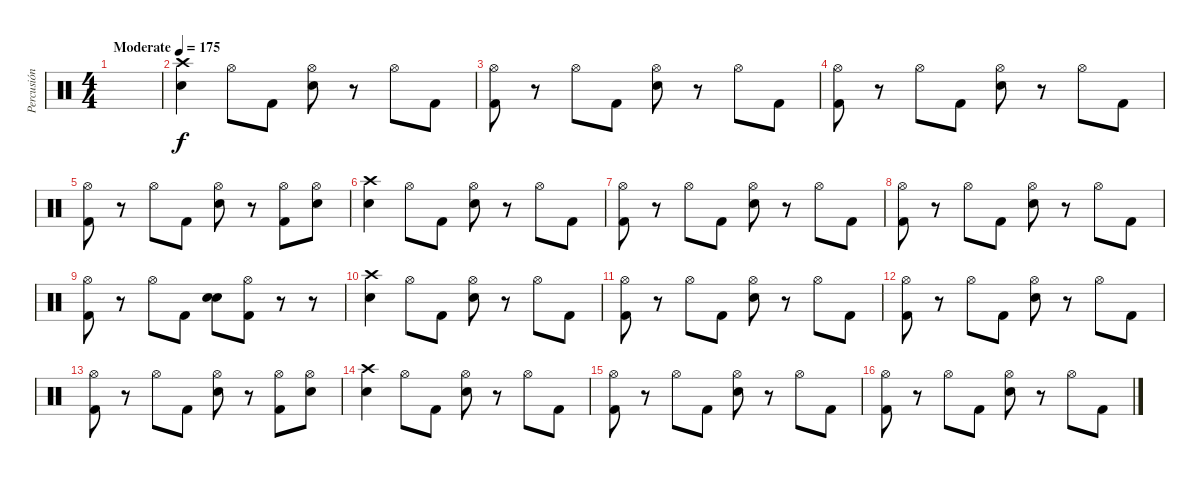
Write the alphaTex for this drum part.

\track ("Percusión" "Percusión") {instrument percussion}
\staff {score}
\articulation defaults
\ts (4 4)
\tempo (175 "Moderate")
\clef neutral
\ks c
|
("Crash high (hit)" "Electric Snare (hit)").4 "Hi-Hat (open)".8 "Kick (hit) 2".8 ("Hi-Hat (open)" "Electric Snare (hit)").8 r.8 "Hi-Hat (open)".8 "Kick (hit) 2".8 |
("Hi-Hat (open)" "Kick (hit) 2").8 r.8 "Hi-Hat (open)".8 "Kick (hit) 2".8 ("Hi-Hat (open)" "Electric Snare (hit)").8 r.8 "Hi-Hat (open)".8 "Kick (hit) 2".8 |
("Hi-Hat (open)" "Kick (hit) 2").8 r.8 "Hi-Hat (open)".8 "Kick (hit) 2".8 ("Hi-Hat (open)" "Electric Snare (hit)").8 r.8 "Hi-Hat (open)".8 "Kick (hit) 2".8 |
("Hi-Hat (open)" "Kick (hit) 2").8 r.8 "Hi-Hat (open)".8 "Kick (hit) 2".8 ("Hi-Hat (open)" "Electric Snare (hit)").8 r.8 ("Hi-Hat (open)" "Kick (hit) 2").8 ("Electric Snare (hit)" "Hi-Hat (open)").8 |
("Crash high (hit)" "Electric Snare (hit)").4 "Hi-Hat (open)".8 "Kick (hit) 2".8 ("Hi-Hat (open)" "Electric Snare (hit)").8 r.8 "Hi-Hat (open)".8 "Kick (hit) 2".8 |
("Hi-Hat (open)" "Kick (hit) 2").8 r.8 "Hi-Hat (open)".8 "Kick (hit) 2".8 ("Hi-Hat (open)" "Electric Snare (hit)").8 r.8 "Hi-Hat (open)".8 "Kick (hit) 2".8 |
("Hi-Hat (open)" "Kick (hit) 2").8 r.8 "Hi-Hat (open)".8 "Kick (hit) 2".8 ("Hi-Hat (open)" "Electric Snare (hit)").8 r.8 "Hi-Hat (open)".8 "Kick (hit) 2".8 |
("Hi-Hat (open)" "Kick (hit) 2").8 r.8 "Hi-Hat (open)".8 "Kick (hit) 2".8 ("Electric Snare (hit)" "Electric Snare (hit)").8 ("Hi-Hat (open)" "Kick (hit) 2").8 r.8 r.8 |
("Crash high (hit)" "Electric Snare (hit)").4 "Hi-Hat (open)".8 "Kick (hit) 2".8 ("Hi-Hat (open)" "Electric Snare (hit)").8 r.8 "Hi-Hat (open)".8 "Kick (hit) 2".8 |
("Hi-Hat (open)" "Kick (hit) 2").8 r.8 "Hi-Hat (open)".8 "Kick (hit) 2".8 ("Hi-Hat (open)" "Electric Snare (hit)").8 r.8 "Hi-Hat (open)".8 "Kick (hit) 2".8 |
("Hi-Hat (open)" "Kick (hit) 2").8 r.8 "Hi-Hat (open)".8 "Kick (hit) 2".8 ("Hi-Hat (open)" "Electric Snare (hit)").8 r.8 "Hi-Hat (open)".8 "Kick (hit) 2".8 |
("Hi-Hat (open)" "Kick (hit) 2").8 r.8 "Hi-Hat (open)".8 "Kick (hit) 2".8 ("Hi-Hat (open)" "Electric Snare (hit)").8 r.8 ("Hi-Hat (open)" "Kick (hit) 2").8 ("Electric Snare (hit)" "Hi-Hat (open)").8 |
("Crash high (hit)" "Electric Snare (hit)").4 "Hi-Hat (open)".8 "Kick (hit) 2".8 ("Hi-Hat (open)" "Electric Snare (hit)").8 r.8 "Hi-Hat (open)".8 "Kick (hit) 2".8 |
("Hi-Hat (open)" "Kick (hit) 2").8 r.8 "Hi-Hat (open)".8 "Kick (hit) 2".8 ("Hi-Hat (open)" "Electric Snare (hit)").8 r.8 "Hi-Hat (open)".8 "Kick (hit) 2".8 |
("Hi-Hat (open)" "Kick (hit) 2").8 r.8 "Hi-Hat (open)".8 "Kick (hit) 2".8 ("Hi-Hat (open)" "Electric Snare (hit)").8 r.8 "Hi-Hat (open)".8 "Kick (hit) 2".8
